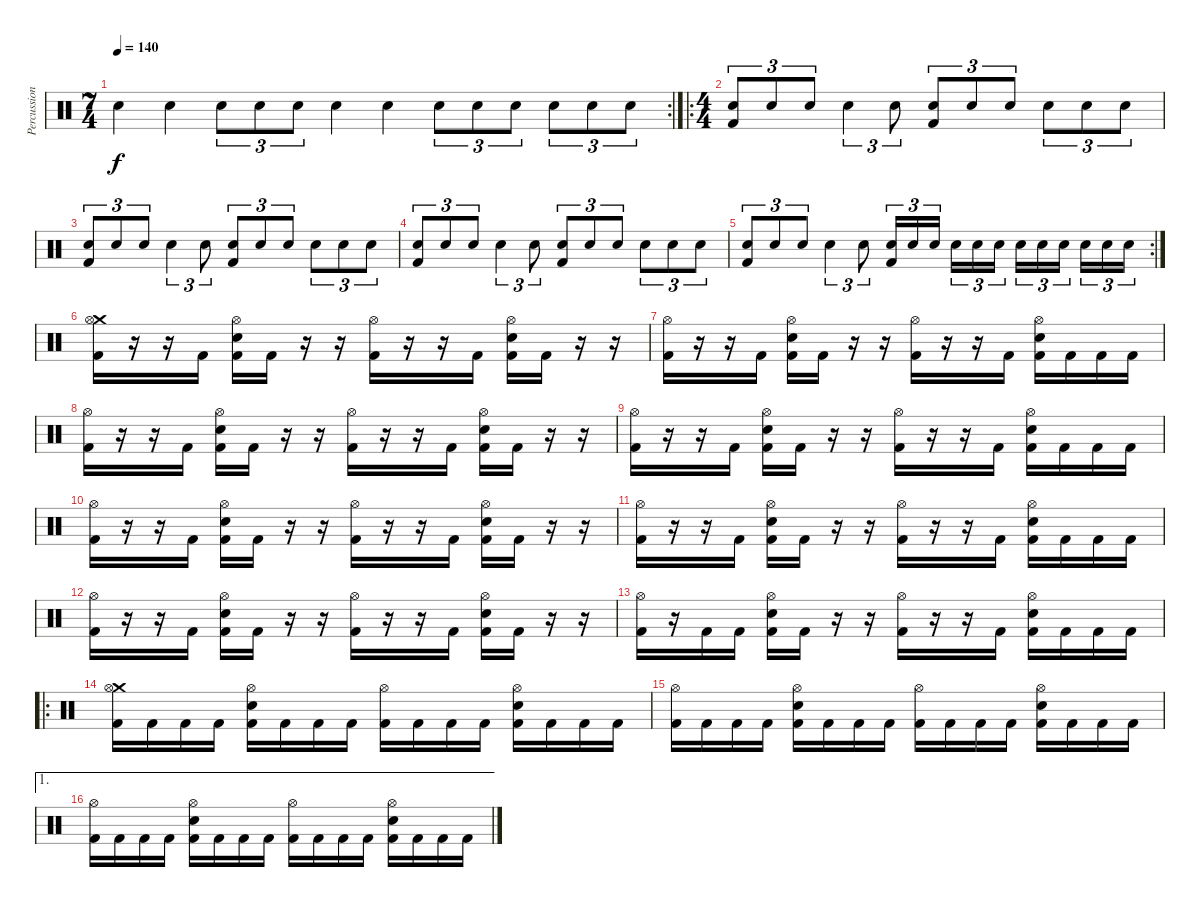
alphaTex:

\track ("Percussion" "Percussion") {instrument percussion}
\staff {score}
\articulation defaults
\rc 2
\ts (7 4)
\tempo 140
\clef neutral
\ks c "Electric Snare (hit)".4{dy f} "Electric Snare (hit)".4 "Electric Snare (hit)".8{tu (3 2)} "Electric Snare (hit)".8{tu (3 2)} "Electric Snare (hit)".8{tu (3 2)} "Electric Snare (hit)".4 "Electric Snare (hit)".4 "Electric Snare (hit)".8{tu (3 2)} "Electric Snare (hit)".8{tu (3 2)} "Electric Snare (hit)".8{tu (3 2)} "Electric Snare (hit)".8{tu (3 2)} "Electric Snare (hit)".8{tu (3 2)} "Electric Snare (hit)".8{tu (3 2)}
|
\ro
\ts (4 4)
("Electric Snare (hit)" "Kick (hit) 2").8{tu (3 2)} "Electric Snare (hit)".8{tu (3 2)} "Electric Snare (hit)".8{tu (3 2)} "Electric Snare (hit)".4{tu (3 2)} "Electric Snare (hit)".8{tu (3 2)} ("Electric Snare (hit)" "Kick (hit) 2").8{tu (3 2)} "Electric Snare (hit)".8{tu (3 2)} "Electric Snare (hit)".8{tu (3 2)} "Electric Snare (hit)".8{tu (3 2)} "Electric Snare (hit)".8{tu (3 2)} "Electric Snare (hit)".8{tu (3 2)} |
("Electric Snare (hit)" "Kick (hit) 2").8{tu (3 2)} "Electric Snare (hit)".8{tu (3 2)} "Electric Snare (hit)".8{tu (3 2)} "Electric Snare (hit)".4{tu (3 2)} "Electric Snare (hit)".8{tu (3 2)} ("Electric Snare (hit)" "Kick (hit) 2").8{tu (3 2)} "Electric Snare (hit)".8{tu (3 2)} "Electric Snare (hit)".8{tu (3 2)} "Electric Snare (hit)".8{tu (3 2)} "Electric Snare (hit)".8{tu (3 2)} "Electric Snare (hit)".8{tu (3 2)} |
("Electric Snare (hit)" "Kick (hit) 2").8{tu (3 2)} "Electric Snare (hit)".8{tu (3 2)} "Electric Snare (hit)".8{tu (3 2)} "Electric Snare (hit)".4{tu (3 2)} "Electric Snare (hit)".8{tu (3 2)} ("Electric Snare (hit)" "Kick (hit) 2").8{tu (3 2)} "Electric Snare (hit)".8{tu (3 2)} "Electric Snare (hit)".8{tu (3 2)} "Electric Snare (hit)".8{tu (3 2)} "Electric Snare (hit)".8{tu (3 2)} "Electric Snare (hit)".8{tu (3 2)} |
\rc 2
("Electric Snare (hit)" "Kick (hit) 2").8{tu (3 2)} "Electric Snare (hit)".8{tu (3 2)} "Electric Snare (hit)".8{tu (3 2)} "Electric Snare (hit)".4{tu (3 2)} "Electric Snare (hit)".8{tu (3 2)} ("Electric Snare (hit)" "Kick (hit) 2").16{tu (3 2)} "Electric Snare (hit)".16{tu (3 2)} "Electric Snare (hit)".16{tu (3 2)} "Electric Snare (hit)".16{tu (3 2)} "Electric Snare (hit)".16{tu (3 2)} "Electric Snare (hit)".16{tu (3 2)} "Electric Snare (hit)".16{tu (3 2)} "Electric Snare (hit)".16{tu (3 2)} "Electric Snare (hit)".16{tu (3 2)} "Electric Snare (hit)".16{tu (3 2)} "Electric Snare (hit)".16{tu (3 2)} "Electric Snare (hit)".16{tu (3 2)} |
("Crash medium (hit)" "Hi-Hat (open)" "Kick (hit) 2").16 r.16 r.16 "Kick (hit) 2".16 ("Hi-Hat (open)" "Electric Snare (hit)" "Kick (hit) 2").16 "Kick (hit) 2".16 r.16 r.16 ("Hi-Hat (open)" "Kick (hit) 2").16 r.16 r.16 "Kick (hit) 2".16 ("Hi-Hat (open)" "Electric Snare (hit)" "Kick (hit) 2").16 "Kick (hit) 2".16 r.16 r.16 |
("Hi-Hat (open)" "Kick (hit) 2").16 r.16 r.16 "Kick (hit) 2".16 ("Hi-Hat (open)" "Electric Snare (hit)" "Kick (hit) 2").16 "Kick (hit) 2".16 r.16 r.16 ("Hi-Hat (open)" "Kick (hit) 2").16 r.16 r.16 "Kick (hit) 2".16 ("Hi-Hat (open)" "Electric Snare (hit)" "Kick (hit) 2").16 "Kick (hit) 2".16 "Kick (hit) 2".16 "Kick (hit) 2".16 |
("Hi-Hat (open)" "Kick (hit) 2").16 r.16 r.16 "Kick (hit) 2".16 ("Hi-Hat (open)" "Electric Snare (hit)" "Kick (hit) 2").16 "Kick (hit) 2".16 r.16 r.16 ("Hi-Hat (open)" "Kick (hit) 2").16 r.16 r.16 "Kick (hit) 2".16 ("Hi-Hat (open)" "Electric Snare (hit)" "Kick (hit) 2").16 "Kick (hit) 2".16 r.16 r.16 |
("Hi-Hat (open)" "Kick (hit) 2").16 r.16 r.16 "Kick (hit) 2".16 ("Hi-Hat (open)" "Electric Snare (hit)" "Kick (hit) 2").16 "Kick (hit) 2".16 r.16 r.16 ("Hi-Hat (open)" "Kick (hit) 2").16 r.16 r.16 "Kick (hit) 2".16 ("Hi-Hat (open)" "Electric Snare (hit)" "Kick (hit) 2").16 "Kick (hit) 2".16 "Kick (hit) 2".16 "Kick (hit) 2".16 |
("Hi-Hat (open)" "Kick (hit) 2").16 r.16 r.16 "Kick (hit) 2".16 ("Hi-Hat (open)" "Electric Snare (hit)" "Kick (hit) 2").16 "Kick (hit) 2".16 r.16 r.16 ("Hi-Hat (open)" "Kick (hit) 2").16 r.16 r.16 "Kick (hit) 2".16 ("Hi-Hat (open)" "Electric Snare (hit)" "Kick (hit) 2").16 "Kick (hit) 2".16 r.16 r.16 |
("Hi-Hat (open)" "Kick (hit) 2").16 r.16 r.16 "Kick (hit) 2".16 ("Hi-Hat (open)" "Electric Snare (hit)" "Kick (hit) 2").16 "Kick (hit) 2".16 r.16 r.16 ("Hi-Hat (open)" "Kick (hit) 2").16 r.16 r.16 "Kick (hit) 2".16 ("Hi-Hat (open)" "Electric Snare (hit)" "Kick (hit) 2").16 "Kick (hit) 2".16 "Kick (hit) 2".16 "Kick (hit) 2".16 |
("Hi-Hat (open)" "Kick (hit) 2").16 r.16 r.16 "Kick (hit) 2".16 ("Hi-Hat (open)" "Electric Snare (hit)" "Kick (hit) 2").16 "Kick (hit) 2".16 r.16 r.16 ("Hi-Hat (open)" "Kick (hit) 2").16 r.16 r.16 "Kick (hit) 2".16 ("Hi-Hat (open)" "Electric Snare (hit)" "Kick (hit) 2").16 "Kick (hit) 2".16 r.16 r.16 |
("Hi-Hat (open)" "Kick (hit) 2").16 r.16 "Kick (hit) 2".16 "Kick (hit) 2".16 ("Hi-Hat (open)" "Electric Snare (hit)" "Kick (hit) 2").16 "Kick (hit) 2".16 r.16 r.16 ("Hi-Hat (open)" "Kick (hit) 2").16 r.16 r.16 "Kick (hit) 2".16 ("Hi-Hat (open)" "Electric Snare (hit)" "Kick (hit) 2").16 "Kick (hit) 2".16 "Kick (hit) 2".16 "Kick (hit) 2".16 |
\ro
("Crash medium (hit)" "Hi-Hat (open)" "Kick (hit) 2").16 "Kick (hit) 2".16 "Kick (hit) 2".16 "Kick (hit) 2".16 ("Hi-Hat (open)" "Electric Snare (hit)" "Kick (hit) 2").16 "Kick (hit) 2".16 "Kick (hit) 2".16 "Kick (hit) 2".16 ("Hi-Hat (open)" "Kick (hit) 2").16 "Kick (hit) 2".16 "Kick (hit) 2".16 "Kick (hit) 2".16 ("Hi-Hat (open)" "Electric Snare (hit)" "Kick (hit) 2").16 "Kick (hit) 2".16 "Kick (hit) 2".16 "Kick (hit) 2".16 |
("Hi-Hat (open)" "Kick (hit) 2").16 "Kick (hit) 2".16 "Kick (hit) 2".16 "Kick (hit) 2".16 ("Hi-Hat (open)" "Electric Snare (hit)" "Kick (hit) 2").16 "Kick (hit) 2".16 "Kick (hit) 2".16 "Kick (hit) 2".16 ("Hi-Hat (open)" "Kick (hit) 2").16 "Kick (hit) 2".16 "Kick (hit) 2".16 "Kick (hit) 2".16 ("Hi-Hat (open)" "Electric Snare (hit)" "Kick (hit) 2").16 "Kick (hit) 2".16 "Kick (hit) 2".16 "Kick (hit) 2".16 |
\ae 1
("Hi-Hat (open)" "Kick (hit) 2").16 "Kick (hit) 2".16 "Kick (hit) 2".16 "Kick (hit) 2".16 ("Hi-Hat (open)" "Electric Snare (hit)" "Kick (hit) 2").16 "Kick (hit) 2".16 "Kick (hit) 2".16 "Kick (hit) 2".16 ("Hi-Hat (open)" "Kick (hit) 2").16 "Kick (hit) 2".16 "Kick (hit) 2".16 "Kick (hit) 2".16 ("Hi-Hat (open)" "Electric Snare (hit)" "Kick (hit) 2").16 "Kick (hit) 2".16 "Kick (hit) 2".16 "Kick (hit) 2".16
